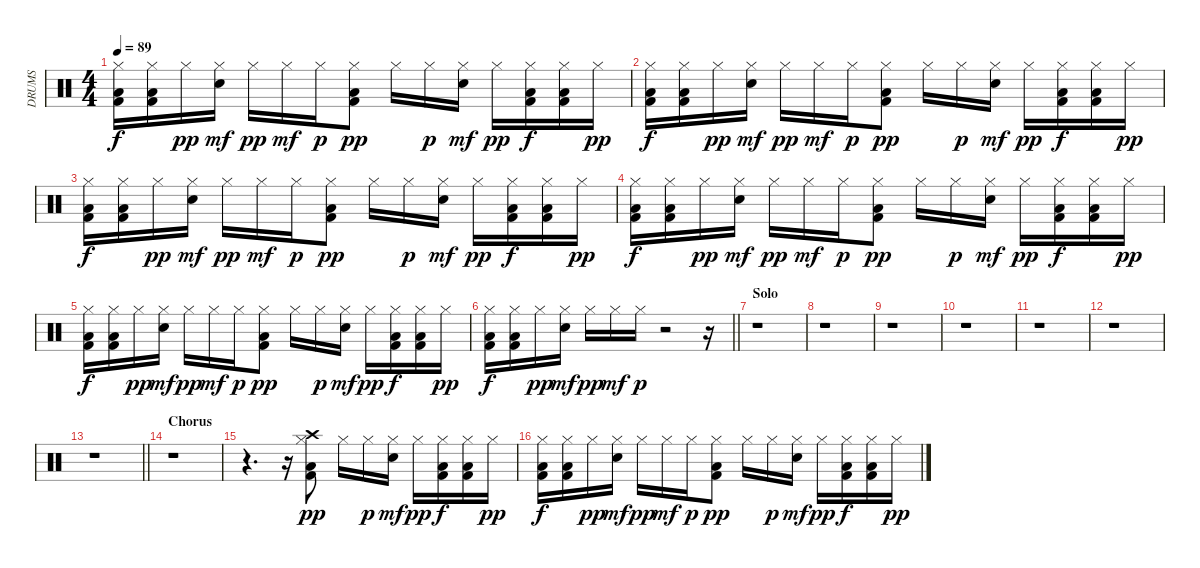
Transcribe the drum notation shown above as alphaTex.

\track ("DRUMS" "DRUMS") {instrument percussion}
\staff {score}
\articulation defaults
\ts (4 4)
\tempo 89
\clef neutral
\ks c
("Kick (hit) 2" "Low Floor Tom (hit)" "Hi-Hat (closed)").16{dy f} ("Kick (hit) 2" "Low Floor Tom (hit)" "Hi-Hat (closed)").16 "Hi-Hat (closed)".16{dy pp} ("Hand Clap (hit)" "Hi-Hat (closed)").16{dy mf} "Hi-Hat (closed)".16{dy pp} "Hi-Hat (closed)".16{dy mf} "Hi-Hat (closed)".16{dy p} ("Hi-Hat (closed)" "Kick (hit) 2" "Low Floor Tom (hit)").8{dy pp} "Hi-Hat (closed)".16 "Hi-Hat (closed)".16{dy p} ("Hand Clap (hit)" "Hi-Hat (closed)").16{dy mf} "Hi-Hat (closed)".16{dy pp} ("Kick (hit) 2" "Low Floor Tom (hit)" "Hi-Hat (closed)").16{dy f} ("Kick (hit) 2" "Low Floor Tom (hit)" "Hi-Hat (closed)").16 "Hi-Hat (closed)".16{dy pp} |
("Kick (hit) 2" "Low Floor Tom (hit)" "Hi-Hat (closed)").16{dy f} ("Kick (hit) 2" "Low Floor Tom (hit)" "Hi-Hat (closed)").16 "Hi-Hat (closed)".16{dy pp} ("Hand Clap (hit)" "Hi-Hat (closed)").16{dy mf} "Hi-Hat (closed)".16{dy pp} "Hi-Hat (closed)".16{dy mf} "Hi-Hat (closed)".16{dy p} ("Hi-Hat (closed)" "Kick (hit) 2" "Low Floor Tom (hit)").8{dy pp} "Hi-Hat (closed)".16 "Hi-Hat (closed)".16{dy p} ("Hand Clap (hit)" "Hi-Hat (closed)").16{dy mf} "Hi-Hat (closed)".16{dy pp} ("Kick (hit) 2" "Low Floor Tom (hit)" "Hi-Hat (closed)").16{dy f} ("Kick (hit) 2" "Low Floor Tom (hit)" "Hi-Hat (closed)").16 "Hi-Hat (closed)".16{dy pp} |
("Kick (hit) 2" "Low Floor Tom (hit)" "Hi-Hat (closed)").16{dy f} ("Kick (hit) 2" "Low Floor Tom (hit)" "Hi-Hat (closed)").16 "Hi-Hat (closed)".16{dy pp} ("Hand Clap (hit)" "Hi-Hat (closed)").16{dy mf} "Hi-Hat (closed)".16{dy pp} "Hi-Hat (closed)".16{dy mf} "Hi-Hat (closed)".16{dy p} ("Hi-Hat (closed)" "Kick (hit) 2" "Low Floor Tom (hit)").8{dy pp} "Hi-Hat (closed)".16 "Hi-Hat (closed)".16{dy p} ("Hand Clap (hit)" "Hi-Hat (closed)").16{dy mf} "Hi-Hat (closed)".16{dy pp} ("Kick (hit) 2" "Low Floor Tom (hit)" "Hi-Hat (closed)").16{dy f} ("Kick (hit) 2" "Low Floor Tom (hit)" "Hi-Hat (closed)").16 "Hi-Hat (closed)".16{dy pp} |
("Kick (hit) 2" "Low Floor Tom (hit)" "Hi-Hat (closed)").16{dy f} ("Kick (hit) 2" "Low Floor Tom (hit)" "Hi-Hat (closed)").16 "Hi-Hat (closed)".16{dy pp} ("Hand Clap (hit)" "Hi-Hat (closed)").16{dy mf} "Hi-Hat (closed)".16{dy pp} "Hi-Hat (closed)".16{dy mf} "Hi-Hat (closed)".16{dy p} ("Hi-Hat (closed)" "Kick (hit) 2" "Low Floor Tom (hit)").8{dy pp} "Hi-Hat (closed)".16 "Hi-Hat (closed)".16{dy p} ("Hand Clap (hit)" "Hi-Hat (closed)").16{dy mf} "Hi-Hat (closed)".16{dy pp} ("Kick (hit) 2" "Low Floor Tom (hit)" "Hi-Hat (closed)").16{dy f} ("Kick (hit) 2" "Low Floor Tom (hit)" "Hi-Hat (closed)").16 "Hi-Hat (closed)".16{dy pp} |
("Kick (hit) 2" "Low Floor Tom (hit)" "Hi-Hat (closed)").16{dy f} ("Kick (hit) 2" "Low Floor Tom (hit)" "Hi-Hat (closed)").16 "Hi-Hat (closed)".16{dy pp} ("Hand Clap (hit)" "Hi-Hat (closed)").16{dy mf} "Hi-Hat (closed)".16{dy pp} "Hi-Hat (closed)".16{dy mf} "Hi-Hat (closed)".16{dy p} ("Hi-Hat (closed)" "Kick (hit) 2" "Low Floor Tom (hit)").8{dy pp} "Hi-Hat (closed)".16 "Hi-Hat (closed)".16{dy p} ("Hand Clap (hit)" "Hi-Hat (closed)").16{dy mf} "Hi-Hat (closed)".16{dy pp} ("Kick (hit) 2" "Low Floor Tom (hit)" "Hi-Hat (closed)").16{dy f} ("Kick (hit) 2" "Low Floor Tom (hit)" "Hi-Hat (closed)").16 "Hi-Hat (closed)".16{dy pp} |
\barLineRight lightlight
("Kick (hit) 2" "Low Floor Tom (hit)" "Hi-Hat (closed)").16{dy f} ("Kick (hit) 2" "Low Floor Tom (hit)" "Hi-Hat (closed)").16 "Hi-Hat (closed)".16{dy pp} ("Hand Clap (hit)" "Hi-Hat (closed)").16{dy mf} "Hi-Hat (closed)".16{dy pp} "Hi-Hat (closed)".16{dy mf} "Hi-Hat (closed)".16{dy p} r.2 r.16 |
\section ("" "Solo")
r.1 |
r.1 |
r.1 |
r.1 |
r.1 |
r.1 |
\barLineRight lightlight
r.1 |
\section ("" "Chorus")
r.1 |
r.4{d} r.16 ("Hi-Hat (closed)" "Crash high (hit)" "Kick (hit) 2" "Low Floor Tom (hit)").8{dy pp} "Hi-Hat (closed)".16 "Hi-Hat (closed)".16{dy p} ("Hand Clap (hit)" "Hi-Hat (closed)").16{dy mf} "Hi-Hat (closed)".16{dy pp} ("Kick (hit) 2" "Low Floor Tom (hit)" "Hi-Hat (closed)").16{dy f} ("Kick (hit) 2" "Low Floor Tom (hit)" "Hi-Hat (closed)").16 "Hi-Hat (closed)".16{dy pp} |
("Kick (hit) 2" "Low Floor Tom (hit)" "Hi-Hat (closed)").16{dy f} ("Kick (hit) 2" "Low Floor Tom (hit)" "Hi-Hat (closed)").16 "Hi-Hat (closed)".16{dy pp} ("Hand Clap (hit)" "Hi-Hat (closed)").16{dy mf} "Hi-Hat (closed)".16{dy pp} "Hi-Hat (closed)".16{dy mf} "Hi-Hat (closed)".16{dy p} ("Hi-Hat (closed)" "Kick (hit) 2" "Low Floor Tom (hit)").8{dy pp} "Hi-Hat (closed)".16 "Hi-Hat (closed)".16{dy p} ("Hand Clap (hit)" "Hi-Hat (closed)").16{dy mf} "Hi-Hat (closed)".16{dy pp} ("Kick (hit) 2" "Low Floor Tom (hit)" "Hi-Hat (closed)").16{dy f} ("Kick (hit) 2" "Low Floor Tom (hit)" "Hi-Hat (closed)").16 "Hi-Hat (closed)".16{dy pp}
